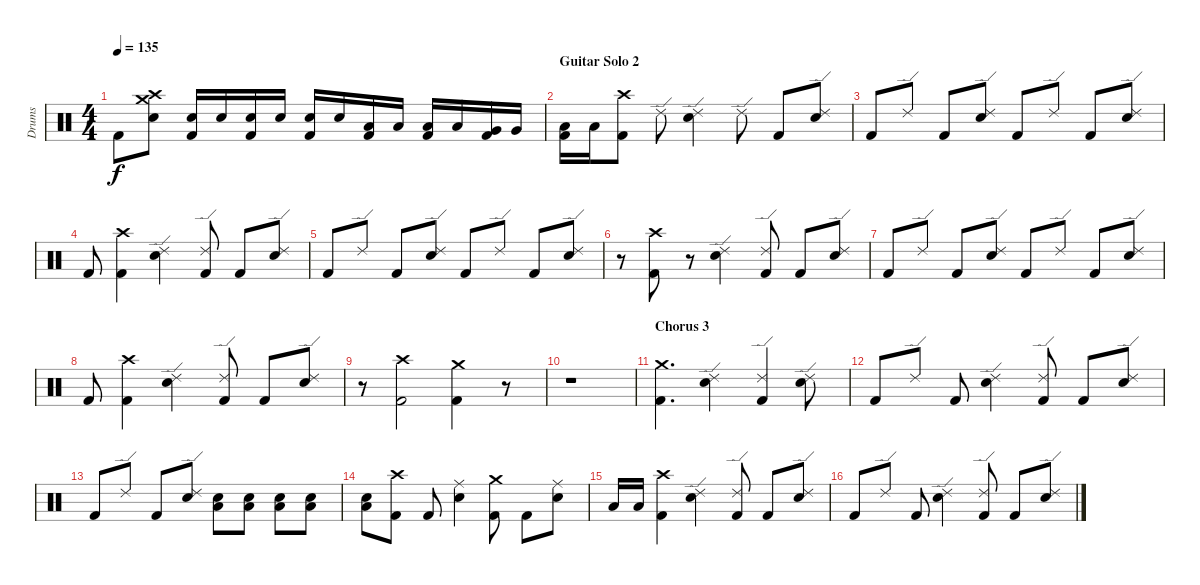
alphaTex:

\track ("Drums" "Drums") {instrument percussion}
\staff {score}
\articulation defaults
\ts (4 4)
\tempo 135
\clef neutral
\ks c "Kick (hit) 2".8{dy f}
("Crash high (hit)" "Crash medium (hit)" "Snare (hit) 2").8 ("Snare (hit) 2" "Kick (hit) 2").16 "Snare (hit) 2".16 ("Snare (hit) 2" "Kick (hit) 2").16 "Snare (hit) 2".16 ("Snare (hit) 2" "Kick (hit) 2").16 "Snare (hit) 2".16 ("Low Tom (hit)" "Kick (hit) 2").16 "Low Tom (hit)".16 ("Low Tom (hit)" "Kick (hit) 2").16 "Low Tom (hit)".16 ("Very Low Tom (hit)" "Kick (hit) 2").16 "Very Low Tom (hit)".16 |
\section ("" "Guitar Solo 2")
("Low Floor Tom (hit)" "Kick (hit) 2").16 "Low Floor Tom (hit)".16 ("Crash high (hit)" "Kick (hit) 2").8 "Ride (edge) 2".8 ("Ride (edge) 2" "Snare (hit) 2").4 "Ride (edge) 2".8 "Kick (hit) 2".8 ("Ride (edge) 2" "Snare (hit) 2").8 |
"Kick (hit) 2".8 "Ride (edge) 2".8 "Kick (hit) 2".8 ("Ride (edge) 2" "Snare (hit) 2").8 "Kick (hit) 2".8 "Ride (edge) 2".8 "Kick (hit) 2".8 ("Ride (edge) 2" "Snare (hit) 2").8 |
"Kick (hit) 2".8 ("Crash high (hit)" "Kick (hit) 2").4 ("Ride (edge) 2" "Snare (hit) 2").4 ("Ride (edge) 2" "Kick (hit) 2").8 "Kick (hit) 2".8 ("Ride (edge) 2" "Snare (hit) 2").8 |
"Kick (hit) 2".8 "Ride (edge) 2".8 "Kick (hit) 2".8 ("Ride (edge) 2" "Snare (hit) 2").8 "Kick (hit) 2".8 "Ride (edge) 2".8 "Kick (hit) 2".8 ("Ride (edge) 2" "Snare (hit) 2").8 |
r.8 ("Crash high (hit)" "Kick (hit) 2").8 r.8 ("Ride (edge) 2" "Snare (hit) 2").4 ("Ride (edge) 2" "Kick (hit) 2").8 "Kick (hit) 2".8 ("Ride (edge) 2" "Snare (hit) 2").8 |
"Kick (hit) 2".8 "Ride (edge) 2".8 "Kick (hit) 2".8 ("Ride (edge) 2" "Snare (hit) 2").8 "Kick (hit) 2".8 "Ride (edge) 2".8 "Kick (hit) 2".8 ("Ride (edge) 2" "Snare (hit) 2").8 |
"Kick (hit) 2".8 ("Crash high (hit)" "Kick (hit) 2").4 ("Ride (edge) 2" "Snare (hit) 2").4 ("Ride (edge) 2" "Kick (hit) 2").8 "Kick (hit) 2".8 ("Ride (edge) 2" "Snare (hit) 2").8 |
r.8 ("Crash high (hit)" "Kick (hit) 2").2 ("Crash medium (hit)" "Kick (hit) 2").4 r.8 |
r.1 |
\section ("" "Chorus 3")
("Crash medium (hit)" "Kick (hit) 2").4{d} ("Ride (edge) 2" "Snare (hit) 2").4 ("Ride (edge) 2" "Kick (hit) 2").4 ("Ride (edge) 2" "Snare (hit) 2").8 |
"Kick (hit) 2".8 "Ride (edge) 2".8 "Kick (hit) 2".8 ("Ride (edge) 2" "Snare (hit) 2").4 ("Ride (edge) 2" "Kick (hit) 2").8 "Kick (hit) 2".8 ("Ride (edge) 2" "Snare (hit) 2").8 |
"Kick (hit) 2".8 "Ride (edge) 2".8 "Kick (hit) 2".8 ("Ride (edge) 2" "Snare (hit) 2").8 ("Low Floor Tom (hit)" "Snare (hit) 2").8 ("Low Floor Tom (hit)" "Snare (hit) 2").8 ("Low Floor Tom (hit)" "Snare (hit) 2").8 ("Low Floor Tom (hit)" "Snare (hit) 2").8 |
("Low Floor Tom (hit)" "Snare (hit) 2").8 ("Crash high (hit)" "Kick (hit) 2").8 "Kick (hit) 2".8 ("Ride (middle)" "Snare (hit) 2").4 ("Crash medium (hit)" "Kick (hit) 2").8 "Kick (hit) 2".8 ("Ride (middle)" "Snare (hit) 2").8 |
"Low Floor Tom (hit)".16 "Low Floor Tom (hit)".16 ("Crash high (hit)" "Kick (hit) 2").4 ("Ride (edge) 2" "Snare (hit) 2").4 ("Ride (edge) 2" "Kick (hit) 2").8 "Kick (hit) 2".8 ("Ride (edge) 2" "Snare (hit) 2").8 |
"Kick (hit) 2".8 "Ride (edge) 2".8 "Kick (hit) 2".8 ("Ride (edge) 2" "Snare (hit) 2").4 ("Ride (edge) 2" "Kick (hit) 2").8 "Kick (hit) 2".8 ("Ride (edge) 2" "Snare (hit) 2").8
